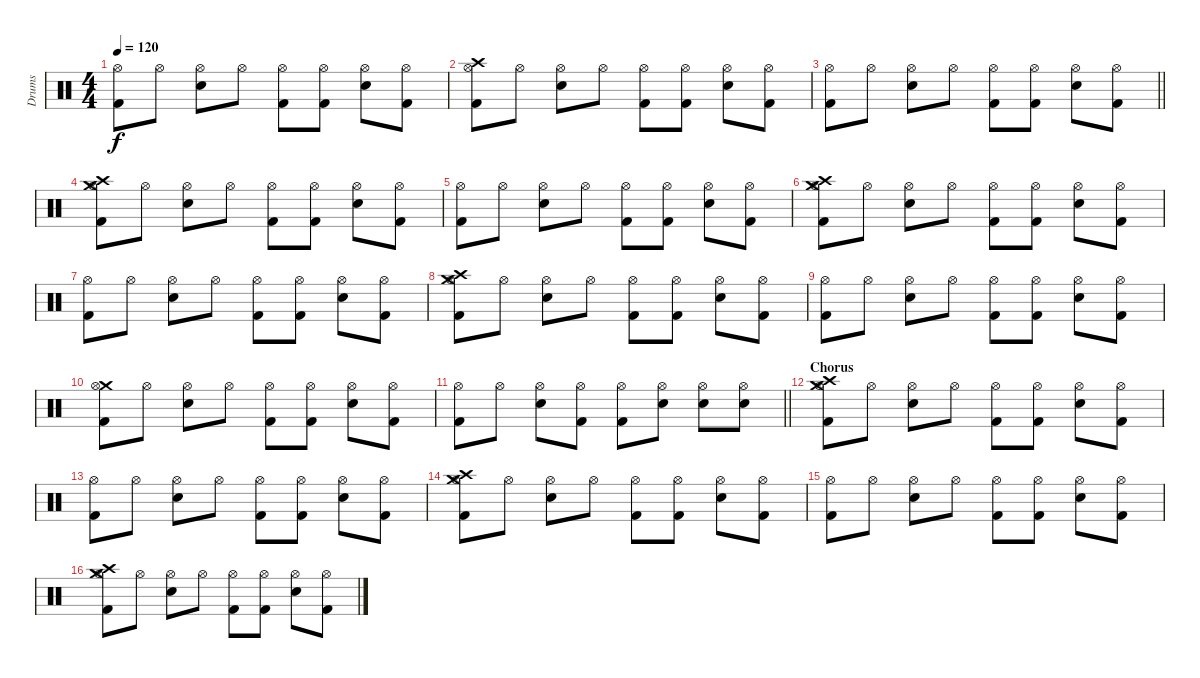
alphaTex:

\track ("Drums" "Drums") {instrument percussion}
\staff {score}
\articulation defaults
\ts (4 4)
\tempo 120
\clef neutral
\ks c
("Kick (hit) 2" "Hi-Hat (open)").8{dy f} "Hi-Hat (open)".8 ("Snare (hit) 2" "Hi-Hat (open)").8 "Hi-Hat (open)".8 ("Kick (hit) 2" "Hi-Hat (open)").8 ("Kick (hit) 2" "Hi-Hat (open)").8 ("Snare (hit) 2" "Hi-Hat (open)").8 ("Kick (hit) 2" "Hi-Hat (open)").8 |
("Crash high (hit)" "Kick (hit) 2" "Hi-Hat (open)").8 "Hi-Hat (open)".8 ("Snare (hit) 2" "Hi-Hat (open)").8 "Hi-Hat (open)".8 ("Kick (hit) 2" "Hi-Hat (open)").8 ("Kick (hit) 2" "Hi-Hat (open)").8 ("Snare (hit) 2" "Hi-Hat (open)").8 ("Kick (hit) 2" "Hi-Hat (open)").8 |
\barLineRight lightlight
("Kick (hit) 2" "Hi-Hat (open)").8 "Hi-Hat (open)".8 ("Snare (hit) 2" "Hi-Hat (open)").8 "Hi-Hat (open)".8 ("Kick (hit) 2" "Hi-Hat (open)").8 ("Kick (hit) 2" "Hi-Hat (open)").8 ("Snare (hit) 2" "Hi-Hat (open)").8 ("Kick (hit) 2" "Hi-Hat (open)").8 |
("Crash high (hit)" "Crash medium (hit)" "Kick (hit) 2" "Hi-Hat (open)").8 "Hi-Hat (open)".8 ("Snare (hit) 2" "Hi-Hat (open)").8 "Hi-Hat (open)".8 ("Kick (hit) 2" "Hi-Hat (open)").8 ("Kick (hit) 2" "Hi-Hat (open)").8 ("Snare (hit) 2" "Hi-Hat (open)").8 ("Kick (hit) 2" "Hi-Hat (open)").8 |
("Kick (hit) 2" "Hi-Hat (open)").8 "Hi-Hat (open)".8 ("Snare (hit) 2" "Hi-Hat (open)").8 "Hi-Hat (open)".8 ("Kick (hit) 2" "Hi-Hat (open)").8 ("Kick (hit) 2" "Hi-Hat (open)").8 ("Snare (hit) 2" "Hi-Hat (open)").8 ("Kick (hit) 2" "Hi-Hat (open)").8 |
("Crash high (hit)" "Crash medium (hit)" "Kick (hit) 2" "Hi-Hat (open)").8 "Hi-Hat (open)".8 ("Snare (hit) 2" "Hi-Hat (open)").8 "Hi-Hat (open)".8 ("Kick (hit) 2" "Hi-Hat (open)").8 ("Kick (hit) 2" "Hi-Hat (open)").8 ("Snare (hit) 2" "Hi-Hat (open)").8 ("Kick (hit) 2" "Hi-Hat (open)").8 |
("Kick (hit) 2" "Hi-Hat (open)").8 "Hi-Hat (open)".8 ("Snare (hit) 2" "Hi-Hat (open)").8 "Hi-Hat (open)".8 ("Kick (hit) 2" "Hi-Hat (open)").8 ("Kick (hit) 2" "Hi-Hat (open)").8 ("Snare (hit) 2" "Hi-Hat (open)").8 ("Kick (hit) 2" "Hi-Hat (open)").8 |
("Crash high (hit)" "Crash medium (hit)" "Kick (hit) 2" "Hi-Hat (open)").8 "Hi-Hat (open)".8 ("Snare (hit) 2" "Hi-Hat (open)").8 "Hi-Hat (open)".8 ("Kick (hit) 2" "Hi-Hat (open)").8 ("Kick (hit) 2" "Hi-Hat (open)").8 ("Snare (hit) 2" "Hi-Hat (open)").8 ("Kick (hit) 2" "Hi-Hat (open)").8 |
("Kick (hit) 2" "Hi-Hat (open)").8 "Hi-Hat (open)".8 ("Snare (hit) 2" "Hi-Hat (open)").8 "Hi-Hat (open)".8 ("Kick (hit) 2" "Hi-Hat (open)").8 ("Kick (hit) 2" "Hi-Hat (open)").8 ("Snare (hit) 2" "Hi-Hat (open)").8 ("Kick (hit) 2" "Hi-Hat (open)").8 |
("Crash medium (hit)" "Kick (hit) 2" "Hi-Hat (open)").8 "Hi-Hat (open)".8 ("Snare (hit) 2" "Hi-Hat (open)").8 "Hi-Hat (open)".8 ("Kick (hit) 2" "Hi-Hat (open)").8 ("Kick (hit) 2" "Hi-Hat (open)").8 ("Snare (hit) 2" "Hi-Hat (open)").8 ("Kick (hit) 2" "Hi-Hat (open)").8 |
\barLineRight lightlight
("Kick (hit) 2" "Hi-Hat (open)").8 "Hi-Hat (open)".8 ("Snare (hit) 2" "Hi-Hat (open)").8 ("Kick (hit) 2" "Hi-Hat (open)").8 ("Kick (hit) 2" "Hi-Hat (open)").8 ("Snare (hit) 2" "Hi-Hat (open)").8 ("Snare (hit) 2" "Hi-Hat (open)").8 ("Snare (hit) 2" "Hi-Hat (open)").8 |
\section ("" "Chorus")
("Crash high (hit)" "Crash medium (hit)" "Kick (hit) 2" "Hi-Hat (open)").8 "Hi-Hat (open)".8 ("Snare (hit) 2" "Hi-Hat (open)").8 "Hi-Hat (open)".8 ("Kick (hit) 2" "Hi-Hat (open)").8 ("Kick (hit) 2" "Hi-Hat (open)").8 ("Snare (hit) 2" "Hi-Hat (open)").8 ("Kick (hit) 2" "Hi-Hat (open)").8 |
("Kick (hit) 2" "Hi-Hat (open)").8 "Hi-Hat (open)".8 ("Snare (hit) 2" "Hi-Hat (open)").8 "Hi-Hat (open)".8 ("Kick (hit) 2" "Hi-Hat (open)").8 ("Kick (hit) 2" "Hi-Hat (open)").8 ("Snare (hit) 2" "Hi-Hat (open)").8 ("Kick (hit) 2" "Hi-Hat (open)").8 |
("Crash high (hit)" "Crash medium (hit)" "Kick (hit) 2" "Hi-Hat (open)").8 "Hi-Hat (open)".8 ("Snare (hit) 2" "Hi-Hat (open)").8 "Hi-Hat (open)".8 ("Kick (hit) 2" "Hi-Hat (open)").8 ("Kick (hit) 2" "Hi-Hat (open)").8 ("Snare (hit) 2" "Hi-Hat (open)").8 ("Kick (hit) 2" "Hi-Hat (open)").8 |
("Kick (hit) 2" "Hi-Hat (open)").8 "Hi-Hat (open)".8 ("Snare (hit) 2" "Hi-Hat (open)").8 "Hi-Hat (open)".8 ("Kick (hit) 2" "Hi-Hat (open)").8 ("Kick (hit) 2" "Hi-Hat (open)").8 ("Snare (hit) 2" "Hi-Hat (open)").8 ("Kick (hit) 2" "Hi-Hat (open)").8 |
("Crash high (hit)" "Crash medium (hit)" "Kick (hit) 2" "Hi-Hat (open)").8 "Hi-Hat (open)".8 ("Snare (hit) 2" "Hi-Hat (open)").8 "Hi-Hat (open)".8 ("Kick (hit) 2" "Hi-Hat (open)").8 ("Kick (hit) 2" "Hi-Hat (open)").8 ("Snare (hit) 2" "Hi-Hat (open)").8 ("Kick (hit) 2" "Hi-Hat (open)").8
